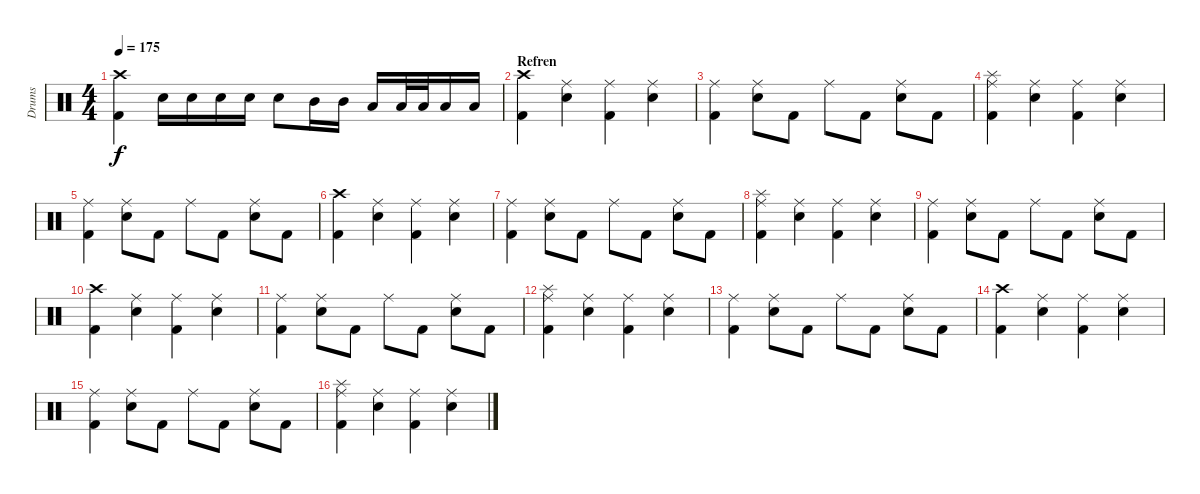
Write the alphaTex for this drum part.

\track ("Drums" "Drums") {instrument percussion}
\staff {score}
\articulation defaults
\ts (4 4)
\tempo 175
\clef neutral
\ks c
("Crash high (hit)" "Kick (hit) 2").4{dy f} "Snare (hit) 2".16 "Snare (hit) 2".16 "Snare (hit) 2".16 "Snare (hit) 2".16 "Snare (hit) 2".8 "Mid Tom (hit)".16 "Mid Tom (hit)".16 "Low Tom (hit)".16 "Low Tom (hit)".32 "Low Tom (hit)".32 "Low Tom (hit)".16 "Low Tom (hit)".16 |
\section ("" "Refren")
("Crash high (hit)" "Kick (hit) 2").4 ("Ride (middle)" "Snare (hit) 2").4 ("Ride (middle)" "Kick (hit) 2").4 ("Ride (middle)" "Snare (hit) 2").4 |
("Ride (middle)" "Kick (hit) 2").4 ("Ride (middle)" "Snare (hit) 2").8 "Kick (hit) 2".8 "Ride (middle)".8 "Kick (hit) 2".8 ("Ride (middle)" "Snare (hit) 2").8 "Kick (hit) 2".8 |
("Splash (hit)" "Ride (middle)" "Kick (hit) 2").4 ("Ride (middle)" "Snare (hit) 2").4 ("Ride (middle)" "Kick (hit) 2").4 ("Ride (middle)" "Snare (hit) 2").4 |
("Ride (middle)" "Kick (hit) 2").4 ("Ride (middle)" "Snare (hit) 2").8 "Kick (hit) 2".8 "Ride (middle)".8 "Kick (hit) 2".8 ("Ride (middle)" "Snare (hit) 2").8 "Kick (hit) 2".8 |
("Crash high (hit)" "Kick (hit) 2").4 ("Ride (middle)" "Snare (hit) 2").4 ("Ride (middle)" "Kick (hit) 2").4 ("Ride (middle)" "Snare (hit) 2").4 |
("Ride (middle)" "Kick (hit) 2").4 ("Ride (middle)" "Snare (hit) 2").8 "Kick (hit) 2".8 "Ride (middle)".8 "Kick (hit) 2".8 ("Ride (middle)" "Snare (hit) 2").8 "Kick (hit) 2".8 |
("Splash (hit)" "Ride (middle)" "Kick (hit) 2").4 ("Ride (middle)" "Snare (hit) 2").4 ("Ride (middle)" "Kick (hit) 2").4 ("Ride (middle)" "Snare (hit) 2").4 |
("Ride (middle)" "Kick (hit) 2").4 ("Ride (middle)" "Snare (hit) 2").8 "Kick (hit) 2".8 "Ride (middle)".8 "Kick (hit) 2".8 ("Ride (middle)" "Snare (hit) 2").8 "Kick (hit) 2".8 |
("Crash high (hit)" "Kick (hit) 2").4 ("Ride (middle)" "Snare (hit) 2").4 ("Ride (middle)" "Kick (hit) 2").4 ("Ride (middle)" "Snare (hit) 2").4 |
("Ride (middle)" "Kick (hit) 2").4 ("Ride (middle)" "Snare (hit) 2").8 "Kick (hit) 2".8 "Ride (middle)".8 "Kick (hit) 2".8 ("Ride (middle)" "Snare (hit) 2").8 "Kick (hit) 2".8 |
("Splash (hit)" "Ride (middle)" "Kick (hit) 2").4 ("Ride (middle)" "Snare (hit) 2").4 ("Ride (middle)" "Kick (hit) 2").4 ("Ride (middle)" "Snare (hit) 2").4 |
("Ride (middle)" "Kick (hit) 2").4 ("Ride (middle)" "Snare (hit) 2").8 "Kick (hit) 2".8 "Ride (middle)".8 "Kick (hit) 2".8 ("Ride (middle)" "Snare (hit) 2").8 "Kick (hit) 2".8 |
("Crash high (hit)" "Kick (hit) 2").4 ("Ride (middle)" "Snare (hit) 2").4 ("Ride (middle)" "Kick (hit) 2").4 ("Ride (middle)" "Snare (hit) 2").4 |
("Ride (middle)" "Kick (hit) 2").4 ("Ride (middle)" "Snare (hit) 2").8 "Kick (hit) 2".8 "Ride (middle)".8 "Kick (hit) 2".8 ("Ride (middle)" "Snare (hit) 2").8 "Kick (hit) 2".8 |
("Splash (hit)" "Ride (middle)" "Kick (hit) 2").4 ("Ride (middle)" "Snare (hit) 2").4 ("Ride (middle)" "Kick (hit) 2").4 ("Ride (middle)" "Snare (hit) 2").4
